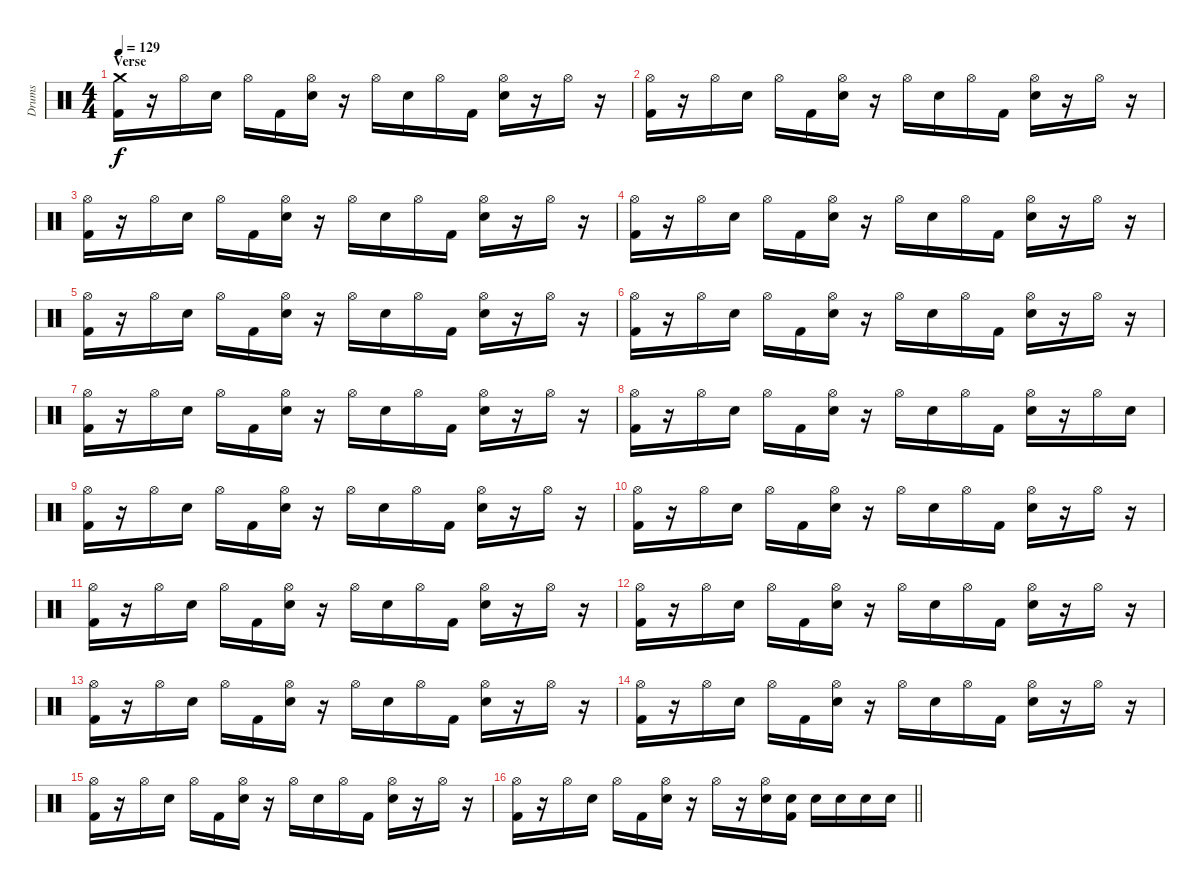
\track ("Drums" "Drums") {instrument percussion}
\staff {score}
\articulation defaults
\ts (4 4)
\section ("" "Verse")
\tempo 129
\clef neutral
\ks c
("Crash medium (hit)" "Kick (hit) 2").16{dy f} r.16 "Hi-Hat (open)".16 "Electric Snare (hit)".16 "Hi-Hat (open)".16 "Kick (hit) 2".16 ("Hi-Hat (open)" "Electric Snare (hit)").16 r.16 "Hi-Hat (open)".16 "Electric Snare (hit)".16 "Hi-Hat (open)".16 "Kick (hit) 2".16 ("Hi-Hat (open)" "Electric Snare (hit)").16 r.16 "Hi-Hat (open)".16 r.16 |
("Hi-Hat (open)" "Kick (hit) 2").16 r.16 "Hi-Hat (open)".16 "Electric Snare (hit)".16 "Hi-Hat (open)".16 "Kick (hit) 2".16 ("Hi-Hat (open)" "Electric Snare (hit)").16 r.16 "Hi-Hat (open)".16 "Electric Snare (hit)".16 "Hi-Hat (open)".16 "Kick (hit) 2".16 ("Hi-Hat (open)" "Electric Snare (hit)").16 r.16 "Hi-Hat (open)".16 r.16 |
("Hi-Hat (open)" "Kick (hit) 2").16 r.16 "Hi-Hat (open)".16 "Electric Snare (hit)".16 "Hi-Hat (open)".16 "Kick (hit) 2".16 ("Hi-Hat (open)" "Electric Snare (hit)").16 r.16 "Hi-Hat (open)".16 "Electric Snare (hit)".16 "Hi-Hat (open)".16 "Kick (hit) 2".16 ("Hi-Hat (open)" "Electric Snare (hit)").16 r.16 "Hi-Hat (open)".16 r.16 |
("Hi-Hat (open)" "Kick (hit) 2").16 r.16 "Hi-Hat (open)".16 "Electric Snare (hit)".16 "Hi-Hat (open)".16 "Kick (hit) 2".16 ("Hi-Hat (open)" "Electric Snare (hit)").16 r.16 "Hi-Hat (open)".16 "Electric Snare (hit)".16 "Hi-Hat (open)".16 "Kick (hit) 2".16 ("Hi-Hat (open)" "Electric Snare (hit)").16 r.16 "Hi-Hat (open)".16 r.16 |
("Hi-Hat (open)" "Kick (hit) 2").16 r.16 "Hi-Hat (open)".16 "Electric Snare (hit)".16 "Hi-Hat (open)".16 "Kick (hit) 2".16 ("Hi-Hat (open)" "Electric Snare (hit)").16 r.16 "Hi-Hat (open)".16 "Electric Snare (hit)".16 "Hi-Hat (open)".16 "Kick (hit) 2".16 ("Hi-Hat (open)" "Electric Snare (hit)").16 r.16 "Hi-Hat (open)".16 r.16 |
("Hi-Hat (open)" "Kick (hit) 2").16 r.16 "Hi-Hat (open)".16 "Electric Snare (hit)".16 "Hi-Hat (open)".16 "Kick (hit) 2".16 ("Hi-Hat (open)" "Electric Snare (hit)").16 r.16 "Hi-Hat (open)".16 "Electric Snare (hit)".16 "Hi-Hat (open)".16 "Kick (hit) 2".16 ("Hi-Hat (open)" "Electric Snare (hit)").16 r.16 "Hi-Hat (open)".16 r.16 |
("Hi-Hat (open)" "Kick (hit) 2").16 r.16 "Hi-Hat (open)".16 "Electric Snare (hit)".16 "Hi-Hat (open)".16 "Kick (hit) 2".16 ("Hi-Hat (open)" "Electric Snare (hit)").16 r.16 "Hi-Hat (open)".16 "Electric Snare (hit)".16 "Hi-Hat (open)".16 "Kick (hit) 2".16 ("Hi-Hat (open)" "Electric Snare (hit)").16 r.16 "Hi-Hat (open)".16 r.16 |
("Hi-Hat (open)" "Kick (hit) 2").16 r.16 "Hi-Hat (open)".16 "Electric Snare (hit)".16 "Hi-Hat (open)".16 "Kick (hit) 2".16 ("Hi-Hat (open)" "Electric Snare (hit)").16 r.16 "Hi-Hat (open)".16 "Electric Snare (hit)".16 "Hi-Hat (open)".16 "Kick (hit) 2".16 ("Hi-Hat (open)" "Electric Snare (hit)").16 r.16 "Hi-Hat (open)".16 "Electric Snare (hit)".16 |
("Hi-Hat (open)" "Kick (hit) 2").16 r.16 "Hi-Hat (open)".16 "Electric Snare (hit)".16 "Hi-Hat (open)".16 "Kick (hit) 2".16 ("Hi-Hat (open)" "Electric Snare (hit)").16 r.16 "Hi-Hat (open)".16 "Electric Snare (hit)".16 "Hi-Hat (open)".16 "Kick (hit) 2".16 ("Hi-Hat (open)" "Electric Snare (hit)").16 r.16 "Hi-Hat (open)".16 r.16 |
("Hi-Hat (open)" "Kick (hit) 2").16 r.16 "Hi-Hat (open)".16 "Electric Snare (hit)".16 "Hi-Hat (open)".16 "Kick (hit) 2".16 ("Hi-Hat (open)" "Electric Snare (hit)").16 r.16 "Hi-Hat (open)".16 "Electric Snare (hit)".16 "Hi-Hat (open)".16 "Kick (hit) 2".16 ("Hi-Hat (open)" "Electric Snare (hit)").16 r.16 "Hi-Hat (open)".16 r.16 |
("Hi-Hat (open)" "Kick (hit) 2").16 r.16 "Hi-Hat (open)".16 "Electric Snare (hit)".16 "Hi-Hat (open)".16 "Kick (hit) 2".16 ("Hi-Hat (open)" "Electric Snare (hit)").16 r.16 "Hi-Hat (open)".16 "Electric Snare (hit)".16 "Hi-Hat (open)".16 "Kick (hit) 2".16 ("Hi-Hat (open)" "Electric Snare (hit)").16 r.16 "Hi-Hat (open)".16 r.16 |
("Hi-Hat (open)" "Kick (hit) 2").16 r.16 "Hi-Hat (open)".16 "Electric Snare (hit)".16 "Hi-Hat (open)".16 "Kick (hit) 2".16 ("Hi-Hat (open)" "Electric Snare (hit)").16 r.16 "Hi-Hat (open)".16 "Electric Snare (hit)".16 "Hi-Hat (open)".16 "Kick (hit) 2".16 ("Hi-Hat (open)" "Electric Snare (hit)").16 r.16 "Hi-Hat (open)".16 r.16 |
("Hi-Hat (open)" "Kick (hit) 2").16 r.16 "Hi-Hat (open)".16 "Electric Snare (hit)".16 "Hi-Hat (open)".16 "Kick (hit) 2".16 ("Hi-Hat (open)" "Electric Snare (hit)").16 r.16 "Hi-Hat (open)".16 "Electric Snare (hit)".16 "Hi-Hat (open)".16 "Kick (hit) 2".16 ("Hi-Hat (open)" "Electric Snare (hit)").16 r.16 "Hi-Hat (open)".16 r.16 |
("Hi-Hat (open)" "Kick (hit) 2").16 r.16 "Hi-Hat (open)".16 "Electric Snare (hit)".16 "Hi-Hat (open)".16 "Kick (hit) 2".16 ("Hi-Hat (open)" "Electric Snare (hit)").16 r.16 "Hi-Hat (open)".16 "Electric Snare (hit)".16 "Hi-Hat (open)".16 "Kick (hit) 2".16 ("Hi-Hat (open)" "Electric Snare (hit)").16 r.16 "Hi-Hat (open)".16 r.16 |
("Hi-Hat (open)" "Kick (hit) 2").16 r.16 "Hi-Hat (open)".16 "Electric Snare (hit)".16 "Hi-Hat (open)".16 "Kick (hit) 2".16 ("Hi-Hat (open)" "Electric Snare (hit)").16 r.16 "Hi-Hat (open)".16 "Electric Snare (hit)".16 "Hi-Hat (open)".16 "Kick (hit) 2".16 ("Hi-Hat (open)" "Electric Snare (hit)").16 r.16 "Hi-Hat (open)".16 r.16 |
\barLineRight lightlight
("Hi-Hat (open)" "Kick (hit) 2").16 r.16 "Hi-Hat (open)".16 "Electric Snare (hit)".16 "Hi-Hat (open)".16 "Kick (hit) 2".16 ("Hi-Hat (open)" "Electric Snare (hit)").16 r.16 "Hi-Hat (open)".16 r.16 ("Hi-Hat (open)" "Electric Snare (hit)").16 ("Electric Snare (hit)" "Kick (hit) 2").16 "Electric Snare (hit)".16 "Electric Snare (hit)".16 "Electric Snare (hit)".16 "Electric Snare (hit)".16
